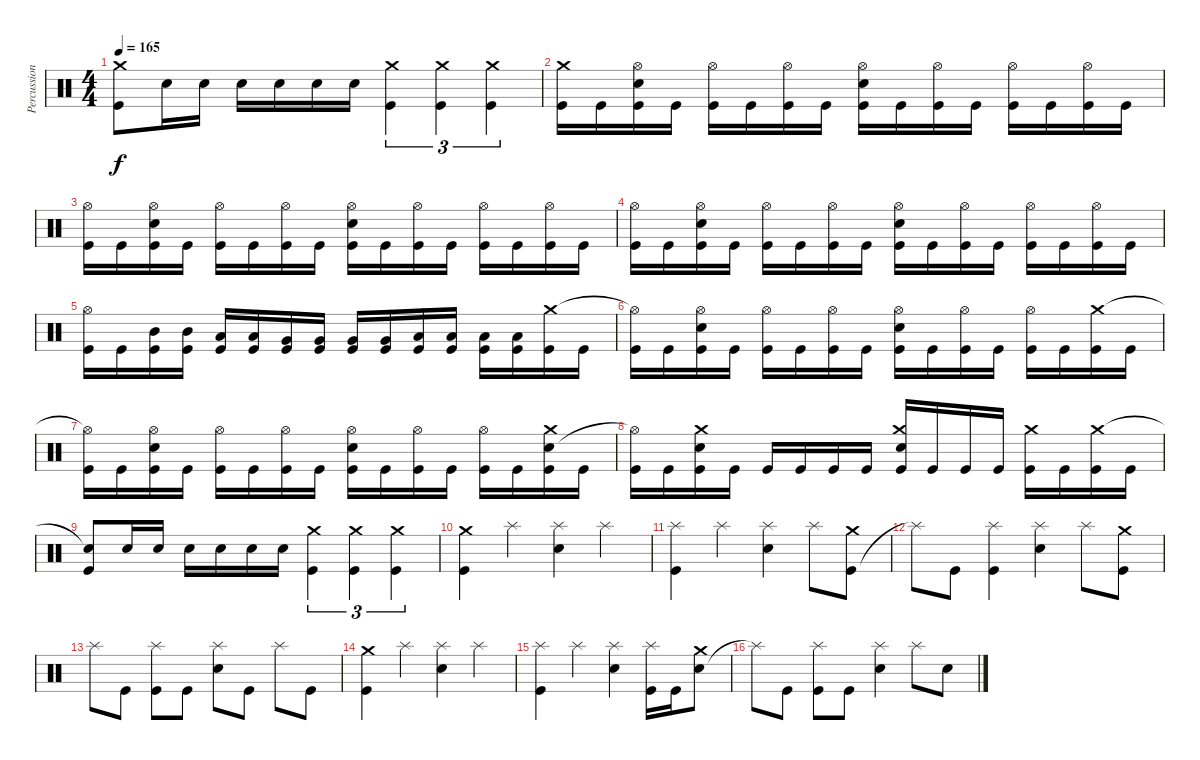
\track ("Percussions" "Percussion") {instrument percussion}
\staff {score}
\articulation defaults
\ts (4 4)
\tempo 165
\clef neutral
\ks c
("Kick (hit)" "Crash medium (hit)").8{dy f} "Electric Snare (hit)".16 "Electric Snare (hit)".16 "Electric Snare (hit)".16 "Electric Snare (hit)".16 "Electric Snare (hit)".16 "Electric Snare (hit)".16 ("Kick (hit)" "Crash medium (hit)").4{tu (3 2)} ("Kick (hit)" "Crash medium (hit)").4{tu (3 2)} ("Kick (hit)" "Crash medium (hit)").4{tu (3 2)} |
("Kick (hit)" "Crash medium (hit)").16 "Kick (hit)".16 ("Kick (hit)" "Electric Snare (hit)" "Hi-Hat (open)").16 "Kick (hit)".16 ("Kick (hit)" "Hi-Hat (open)").16 "Kick (hit)".16 ("Kick (hit)" "Hi-Hat (open)").16 "Kick (hit)".16 ("Kick (hit)" "Electric Snare (hit)" "Hi-Hat (open)").16 "Kick (hit)".16 ("Kick (hit)" "Hi-Hat (open)").16 "Kick (hit)".16 ("Kick (hit)" "Hi-Hat (open)").16 "Kick (hit)".16 ("Kick (hit)" "Hi-Hat (open)").16 "Kick (hit)".16 |
("Kick (hit)" "Hi-Hat (open)").16 "Kick (hit)".16 ("Kick (hit)" "Electric Snare (hit)" "Hi-Hat (open)").16 "Kick (hit)".16 ("Kick (hit)" "Hi-Hat (open)").16 "Kick (hit)".16 ("Kick (hit)" "Hi-Hat (open)").16 "Kick (hit)".16 ("Kick (hit)" "Electric Snare (hit)" "Hi-Hat (open)").16 "Kick (hit)".16 ("Kick (hit)" "Hi-Hat (open)").16 "Kick (hit)".16 ("Kick (hit)" "Hi-Hat (open)").16 "Kick (hit)".16 ("Kick (hit)" "Hi-Hat (open)").16 "Kick (hit)".16 |
("Kick (hit)" "Hi-Hat (open)").16 "Kick (hit)".16 ("Kick (hit)" "Electric Snare (hit)" "Hi-Hat (open)").16 "Kick (hit)".16 ("Kick (hit)" "Hi-Hat (open)").16 "Kick (hit)".16 ("Kick (hit)" "Hi-Hat (open)").16 "Kick (hit)".16 ("Kick (hit)" "Electric Snare (hit)" "Hi-Hat (open)").16 "Kick (hit)".16 ("Kick (hit)" "Hi-Hat (open)").16 "Kick (hit)".16 ("Kick (hit)" "Hi-Hat (open)").16 "Kick (hit)".16 ("Kick (hit)" "Hi-Hat (open)").16 "Kick (hit)".16 |
("Kick (hit)" "Hi-Hat (open)").16 "Kick (hit)".16 ("Kick (hit)" "Mid Tom (hit)").16 ("Kick (hit)" "Mid Tom (hit)").16 ("Kick (hit)" "Low Tom (hit)").16 ("Kick (hit)" "Low Tom (hit)").16 ("Kick (hit)" "Very Low Tom (hit)").16 ("Kick (hit)" "Very Low Tom (hit)").16 ("Kick (hit)" "Very Low Tom (hit)").16 ("Kick (hit)" "Very Low Tom (hit)").16 ("Kick (hit)" "Low Tom (hit)").16 ("Kick (hit)" "Low Tom (hit)").16 ("Kick (hit)" "Low Tom (hit)").16 ("Kick (hit)" "Low Tom (hit)").16 ("Kick (hit)" "Crash medium (hit)").16 "Kick (hit)".16 |
("Kick (hit)" "Hi-Hat (open)"{t}).16 "Kick (hit)".16 ("Kick (hit)" "Electric Snare (hit)" "Hi-Hat (open)").16 "Kick (hit)".16 ("Kick (hit)" "Hi-Hat (open)").16 "Kick (hit)".16 ("Kick (hit)" "Hi-Hat (open)").16 "Kick (hit)".16 ("Kick (hit)" "Electric Snare (hit)" "Hi-Hat (open)").16 "Kick (hit)".16 ("Kick (hit)" "Hi-Hat (open)").16 "Kick (hit)".16 ("Kick (hit)" "Hi-Hat (open)").16 "Kick (hit)".16 ("Kick (hit)" "Crash medium (hit)").16 "Kick (hit)".16 |
("Kick (hit)" "Hi-Hat (open)"{t}).16 "Kick (hit)".16 ("Kick (hit)" "Electric Snare (hit)" "Hi-Hat (open)").16 "Kick (hit)".16 ("Kick (hit)" "Hi-Hat (open)").16 "Kick (hit)".16 ("Kick (hit)" "Hi-Hat (open)").16 "Kick (hit)".16 ("Kick (hit)" "Electric Snare (hit)" "Hi-Hat (open)").16 "Kick (hit)".16 ("Kick (hit)" "Hi-Hat (open)").16 "Kick (hit)".16 ("Kick (hit)" "Hi-Hat (open)").16 "Kick (hit)".16 ("Kick (hit)" "Electric Snare (hit)" "Crash medium (hit)").16 "Kick (hit)".16 |
("Kick (hit)" "Hi-Hat (open)"{t}).16 "Kick (hit)".16 ("Kick (hit)" "Electric Snare (hit)" "Crash medium (hit)").16 "Kick (hit)".16 "Kick (hit)".16 "Kick (hit)".16 "Kick (hit)".16 "Kick (hit)".16 ("Kick (hit)" "Electric Snare (hit)" "Crash medium (hit)").16 "Kick (hit)".16 "Kick (hit)".16 "Kick (hit)".16 ("Kick (hit)" "Crash medium (hit)").16 "Kick (hit)".16 ("Kick (hit)" "Crash medium (hit)").16 "Kick (hit)".16 |
("Kick (hit)" "Snare (hit)"{t}).8 "Electric Snare (hit)".16 "Electric Snare (hit)".16 "Electric Snare (hit)".16 "Electric Snare (hit)".16 "Electric Snare (hit)".16 "Electric Snare (hit)".16 ("Kick (hit)" "Crash medium (hit)").4{tu (3 2)} ("Kick (hit)" "Crash medium (hit)").4{tu (3 2)} ("Kick (hit)" "Crash medium (hit)").4{tu (3 2)} |
("Kick (hit)" "Crash medium (hit)").4 "Splash (hit)".4 ("Electric Snare (hit)" "Splash (hit)").4 "Splash (hit)".4 |
("Kick (hit)" "Splash (hit)").4 "Splash (hit)".4 ("Electric Snare (hit)" "Splash (hit)").4 "Splash (hit)".8 ("Kick (hit)" "Crash medium (hit)").8 |
"Splash (hit)"{t}.8 "Kick (hit)".8 ("Kick (hit)" "Splash (hit)").4 ("Electric Snare (hit)" "Splash (hit)").4 "Splash (hit)".8 ("Kick (hit)" "Crash medium (hit)").8 |
"Splash (hit)".8 "Kick (hit)".8 ("Kick (hit)" "Splash (hit)").8 "Kick (hit)".8 ("Electric Snare (hit)" "Splash (hit)").8 "Kick (hit)".8 "Splash (hit)".8 "Kick (hit)".8 |
("Kick (hit)" "Crash medium (hit)").4 "Splash (hit)".4 ("Electric Snare (hit)" "Splash (hit)").4 "Splash (hit)".4 |
("Kick (hit)" "Splash (hit)").4 "Splash (hit)".4 ("Electric Snare (hit)" "Splash (hit)").4 ("Kick (hit)" "Splash (hit)").16 "Kick (hit)".16 ("Electric Snare (hit)" "Crash medium (hit)").8 |
"Splash (hit)"{t}.8 "Kick (hit)".8 ("Kick (hit)" "Splash (hit)").8 "Kick (hit)".8 ("Electric Snare (hit)" "Splash (hit)").4 "Splash (hit)".8 "Electric Snare (hit)".8
